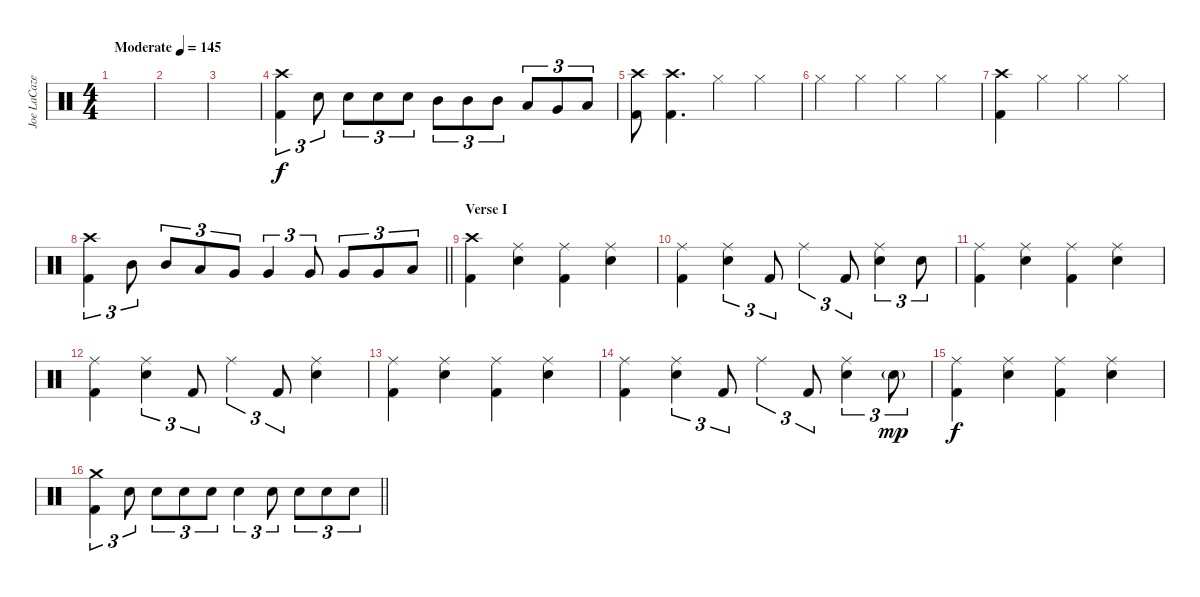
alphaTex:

\track ("Joe LaCaze" "Joe LaCaze") {instrument percussion}
\staff {score}
\articulation defaults
\ts (4 4)
\tempo (145 "Moderate")
\clef neutral
\ks c
|
|
|
("Crash high (hit)" "Kick (hit) 2").4{tu (3 2)} "Electric Snare (hit)".8{tu (3 2)} "Electric Snare (hit)".8{tu (3 2)} "Electric Snare (hit)".8{tu (3 2)} "Electric Snare (hit)".8{tu (3 2)} "Mid Tom (hit)".8{tu (3 2)} "Mid Tom (hit)".8{tu (3 2)} "Mid Tom (hit)".8{tu (3 2)} "Low Tom (hit)".8{tu (3 2)} "Very Low Tom (hit)".8{tu (3 2)} "Low Floor Tom (hit)".8{tu (3 2)} |
("Crash high (hit)" "Kick (hit) 2").8 ("Crash high (hit)" "Kick (hit) 2").4{d} "Hi-Hat (closed)".4 "Hi-Hat (closed)".4 |
"Hi-Hat (closed)".4 "Hi-Hat (closed)".4 "Hi-Hat (closed)".4 "Hi-Hat (closed)".4 |
("Crash high (hit)" "Kick (hit) 2").4 "Hi-Hat (closed)".4 "Hi-Hat (closed)".4 "Hi-Hat (closed)".4 |
\barLineRight lightlight
("Crash high (hit)" "Kick (hit) 2").4{tu (3 2)} "Mid Tom (hit)".8{tu (3 2)} "Mid Tom (hit)".8{tu (3 2)} "Low Tom (hit)".8{tu (3 2)} "Very Low Tom (hit)".8{tu (3 2)} "Very Low Tom (hit)".4{tu (3 2)} "Very Low Tom (hit)".8{tu (3 2)} "Very Low Tom (hit)".8{tu (3 2)} "Very Low Tom (hit)".8{tu (3 2)} "Low Floor Tom (hit)".8{tu (3 2)} |
\section ("" "Verse I")
("Crash high (hit)" "Kick (hit) 2").4 ("Ride (middle)" "Electric Snare (hit)").4 ("Ride (middle)" "Kick (hit) 2").4 ("Ride (middle)" "Electric Snare (hit)").4 |
("Ride (middle)" "Kick (hit) 2").4 ("Ride (middle)" "Electric Snare (hit)").4{tu (3 2)} "Kick (hit) 2".8{tu (3 2)} "Ride (middle)".4{tu (3 2)} "Kick (hit) 2".8{tu (3 2)} ("Ride (middle)" "Electric Snare (hit)").4{tu (3 2)} "Electric Snare (hit)".8{tu (3 2)} |
("Ride (middle)" "Kick (hit) 2").4 ("Ride (middle)" "Electric Snare (hit)").4 ("Ride (middle)" "Kick (hit) 2").4 ("Ride (middle)" "Electric Snare (hit)").4 |
("Ride (middle)" "Kick (hit) 2").4 ("Ride (middle)" "Electric Snare (hit)").4{tu (3 2)} "Kick (hit) 2".8{tu (3 2)} "Ride (middle)".4{tu (3 2)} "Kick (hit) 2".8{tu (3 2)} ("Ride (middle)" "Electric Snare (hit)").4 |
("Ride (middle)" "Kick (hit) 2").4 ("Ride (middle)" "Electric Snare (hit)").4 ("Ride (middle)" "Kick (hit) 2").4 ("Ride (middle)" "Electric Snare (hit)").4 |
("Ride (middle)" "Kick (hit) 2").4 ("Ride (middle)" "Electric Snare (hit)").4{tu (3 2)} "Kick (hit) 2".8{tu (3 2)} "Ride (middle)".4{tu (3 2)} "Kick (hit) 2".8{tu (3 2)} ("Ride (middle)" "Electric Snare (hit)").4{tu (3 2)} "Electric Snare (hit)"{g}.8{tu (3 2) dy mp} |
("Ride (middle)" "Kick (hit) 2").4{dy f} ("Ride (middle)" "Electric Snare (hit)").4 ("Ride (middle)" "Kick (hit) 2").4 ("Ride (middle)" "Electric Snare (hit)").4 |
\barLineRight lightlight
("Crash medium (hit)" "Kick (hit) 2").4{tu (3 2)} "Electric Snare (hit)".8{tu (3 2)} "Electric Snare (hit)".8{tu (3 2)} "Electric Snare (hit)".8{tu (3 2)} "Electric Snare (hit)".8{tu (3 2)} "Electric Snare (hit)".4{tu (3 2)} "Electric Snare (hit)".8{tu (3 2)} "Electric Snare (hit)".8{tu (3 2)} "Electric Snare (hit)".8{tu (3 2)} "Electric Snare (hit)".8{tu (3 2)}
